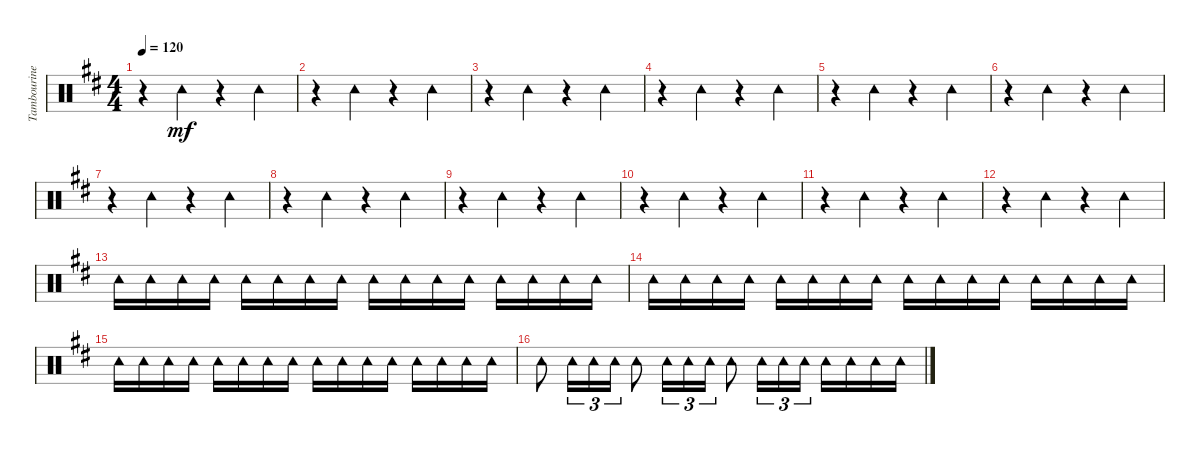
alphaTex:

\track ("Tambourine" "Tambourine") {instrument percussion}
\staff {score}
\articulation defaults
\ts (4 4)
\tempo 120
\clef neutral
\ks d
r.4{dy mf} "Tambourine (hit)".4 r.4 "Tambourine (hit)".4 |
r.4 "Tambourine (hit)".4 r.4 "Tambourine (hit)".4 |
r.4 "Tambourine (hit)".4 r.4 "Tambourine (hit)".4 |
r.4 "Tambourine (hit)".4 r.4 "Tambourine (hit)".4 |
r.4 "Tambourine (hit)".4 r.4 "Tambourine (hit)".4 |
r.4 "Tambourine (hit)".4 r.4 "Tambourine (hit)".4 |
r.4 "Tambourine (hit)".4 r.4 "Tambourine (hit)".4 |
r.4 "Tambourine (hit)".4 r.4 "Tambourine (hit)".4 |
r.4 "Tambourine (hit)".4 r.4 "Tambourine (hit)".4 |
r.4 "Tambourine (hit)".4 r.4 "Tambourine (hit)".4 |
r.4 "Tambourine (hit)".4 r.4 "Tambourine (hit)".4 |
r.4 "Tambourine (hit)".4 r.4 "Tambourine (hit)".4 |
"Tambourine (hit)".16 "Tambourine (hit)".16 "Tambourine (hit)".16 "Tambourine (hit)".16 "Tambourine (hit)".16 "Tambourine (hit)".16 "Tambourine (hit)".16 "Tambourine (hit)".16 "Tambourine (hit)".16 "Tambourine (hit)".16 "Tambourine (hit)".16 "Tambourine (hit)".16 "Tambourine (hit)".16 "Tambourine (hit)".16 "Tambourine (hit)".16 "Tambourine (hit)".16 |
"Tambourine (hit)".16 "Tambourine (hit)".16 "Tambourine (hit)".16 "Tambourine (hit)".16 "Tambourine (hit)".16 "Tambourine (hit)".16 "Tambourine (hit)".16 "Tambourine (hit)".16 "Tambourine (hit)".16 "Tambourine (hit)".16 "Tambourine (hit)".16 "Tambourine (hit)".16 "Tambourine (hit)".16 "Tambourine (hit)".16 "Tambourine (hit)".16 "Tambourine (hit)".16 |
"Tambourine (hit)".16 "Tambourine (hit)".16 "Tambourine (hit)".16 "Tambourine (hit)".16 "Tambourine (hit)".16 "Tambourine (hit)".16 "Tambourine (hit)".16 "Tambourine (hit)".16 "Tambourine (hit)".16 "Tambourine (hit)".16 "Tambourine (hit)".16 "Tambourine (hit)".16 "Tambourine (hit)".16 "Tambourine (hit)".16 "Tambourine (hit)".16 "Tambourine (hit)".16 |
"Tambourine (hit)".8 "Tambourine (hit)".16{tu (3 2)} "Tambourine (hit)".16{tu (3 2)} "Tambourine (hit)".16{tu (3 2)} "Tambourine (hit)".8 "Tambourine (hit)".16{tu (3 2)} "Tambourine (hit)".16{tu (3 2)} "Tambourine (hit)".16{tu (3 2)} "Tambourine (hit)".8 "Tambourine (hit)".16{tu (3 2)} "Tambourine (hit)".16{tu (3 2)} "Tambourine (hit)".16{tu (3 2)} "Tambourine (hit)".16 "Tambourine (hit)".16 "Tambourine (hit)".16 "Tambourine (hit)".16
